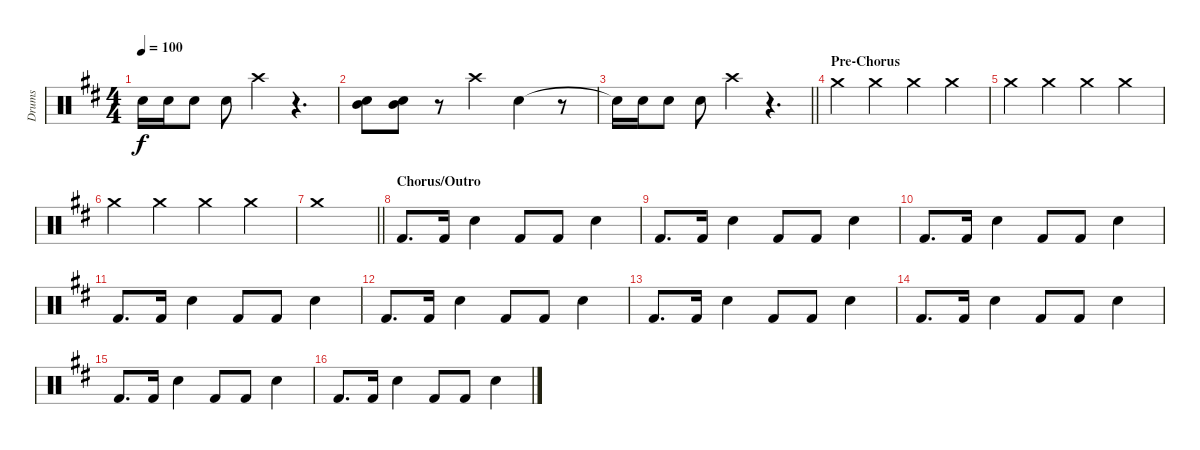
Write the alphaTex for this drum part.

\track ("Drums" "Drums") {instrument percussion}
\staff {score}
\articulation defaults
\ts (4 4)
\tempo 100
\clef neutral
\ks d "Electric Snare (hit)"{t}.16{dy f} "Electric Snare (hit)".16 "Electric Snare (hit)".8 "Electric Snare (hit)".8 "Crash high (hit)".4
r.4{d} |
("Mid Tom (hit)" "Electric Snare (hit)").8 ("Mid Tom (hit)" "Electric Snare (hit)").8 r.8 "Crash high (hit)".4 "Electric Snare (hit)".4 r.8 |
\barLineRight lightlight "Electric Snare (hit)"{t}.16 "Electric Snare (hit)".16 "Electric Snare (hit)".8 "Electric Snare (hit)".8 "Crash high (hit)".4
r.4{d} |
\section ("" "Pre-Chorus")
"Crash medium (hit)".4 "Crash medium (hit)".4 "Crash medium (hit)".4 "Crash medium (hit)".4 |
"Crash medium (hit)".4 "Crash medium (hit)".4 "Crash medium (hit)".4 "Crash medium (hit)".4 |
"Crash medium (hit)".4 "Crash medium (hit)".4 "Crash medium (hit)".4 "Crash medium (hit)".4 |
\barLineRight lightlight "Crash medium (hit)".1
|
\section ("" "Chorus/Outro")
"Kick (hit) 2".8{d} "Kick (hit) 2".16 "Snare (hit) 2".4 "Kick (hit) 2".8 "Kick (hit) 2".8 "Snare (hit) 2".4 |
"Kick (hit) 2".8{d} "Kick (hit) 2".16 "Snare (hit) 2".4 "Kick (hit) 2".8 "Kick (hit) 2".8 "Snare (hit) 2".4 |
"Kick (hit) 2".8{d} "Kick (hit) 2".16 "Snare (hit) 2".4 "Kick (hit) 2".8 "Kick (hit) 2".8 "Snare (hit) 2".4 |
"Kick (hit) 2".8{d} "Kick (hit) 2".16 "Snare (hit) 2".4 "Kick (hit) 2".8 "Kick (hit) 2".8 "Snare (hit) 2".4 |
"Kick (hit) 2".8{d} "Kick (hit) 2".16 "Snare (hit) 2".4 "Kick (hit) 2".8 "Kick (hit) 2".8 "Snare (hit) 2".4 |
"Kick (hit) 2".8{d} "Kick (hit) 2".16 "Snare (hit) 2".4 "Kick (hit) 2".8 "Kick (hit) 2".8 "Snare (hit) 2".4 |
"Kick (hit) 2".8{d} "Kick (hit) 2".16 "Snare (hit) 2".4 "Kick (hit) 2".8 "Kick (hit) 2".8 "Snare (hit) 2".4 |
"Kick (hit) 2".8{d} "Kick (hit) 2".16 "Snare (hit) 2".4 "Kick (hit) 2".8 "Kick (hit) 2".8 "Snare (hit) 2".4 |
"Kick (hit) 2".8{d} "Kick (hit) 2".16 "Snare (hit) 2".4 "Kick (hit) 2".8 "Kick (hit) 2".8 "Snare (hit) 2".4
